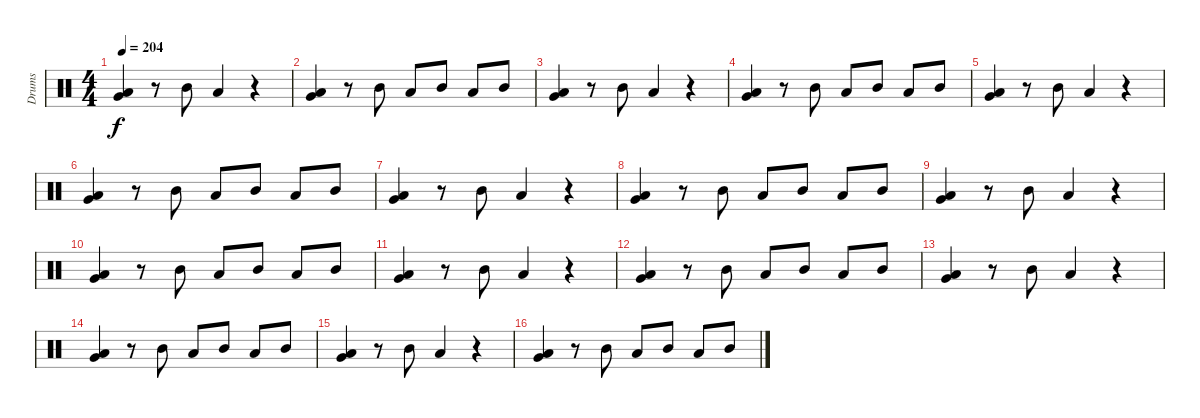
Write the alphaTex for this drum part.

\track ("Drums" "Drums") {instrument percussion}
\staff {score}
\articulation defaults
\ts (4 4)
\tempo 204
\clef neutral
\ks c
("Low Tom (hit)" "Very Low Tom (hit)").4{dy f} r.8 "Mid Tom (hit)".8 "Low Tom (hit)".4 r.4 |
("Very Low Tom (hit)" "Low Tom (hit)").4 r.8 "Mid Tom (hit)".8 "Low Tom (hit)".8 "Mid Tom (hit)".8 "Low Tom (hit)".8 "Mid Tom (hit)".8 |
("Low Tom (hit)" "Very Low Tom (hit)").4 r.8 "Mid Tom (hit)".8 "Low Tom (hit)".4 r.4 |
("Low Tom (hit)" "Very Low Tom (hit)").4 r.8 "Mid Tom (hit)".8 "Low Tom (hit)".8 "Mid Tom (hit)".8 "Low Tom (hit)".8 "Mid Tom (hit)".8 |
("Very Low Tom (hit)" "Low Tom (hit)").4 r.8 "Mid Tom (hit)".8 "Low Tom (hit)".4 r.4 |
("Low Tom (hit)" "Very Low Tom (hit)").4 r.8 "Mid Tom (hit)".8 "Low Tom (hit)".8 "Mid Tom (hit)".8 "Low Tom (hit)".8 "Mid Tom (hit)".8 |
("Low Tom (hit)" "Very Low Tom (hit)").4 r.8 "Mid Tom (hit)".8 "Low Tom (hit)".4 r.4 |
("Low Tom (hit)" "Very Low Tom (hit)").4 r.8 "Mid Tom (hit)".8 "Low Tom (hit)".8 "Mid Tom (hit)".8 "Low Tom (hit)".8 "Mid Tom (hit)".8 |
("Low Tom (hit)" "Very Low Tom (hit)").4 r.8 "Mid Tom (hit)".8 "Low Tom (hit)".4 r.4 |
("Very Low Tom (hit)" "Low Tom (hit)").4 r.8 "Mid Tom (hit)".8 "Low Tom (hit)".8 "Mid Tom (hit)".8 "Low Tom (hit)".8 "Mid Tom (hit)".8 |
("Low Tom (hit)" "Very Low Tom (hit)").4 r.8 "Mid Tom (hit)".8 "Low Tom (hit)".4 r.4 |
("Low Tom (hit)" "Very Low Tom (hit)").4 r.8 "Mid Tom (hit)".8 "Low Tom (hit)".8 "Mid Tom (hit)".8 "Low Tom (hit)".8 "Mid Tom (hit)".8 |
("Very Low Tom (hit)" "Low Tom (hit)").4 r.8 "Mid Tom (hit)".8 "Low Tom (hit)".4 r.4 |
("Low Tom (hit)" "Very Low Tom (hit)").4 r.8 "Mid Tom (hit)".8 "Low Tom (hit)".8 "Mid Tom (hit)".8 "Low Tom (hit)".8 "Mid Tom (hit)".8 |
("Low Tom (hit)" "Very Low Tom (hit)").4 r.8 "Mid Tom (hit)".8 "Low Tom (hit)".4 r.4 |
("Very Low Tom (hit)" "Low Tom (hit)").4 r.8 "Mid Tom (hit)".8 "Low Tom (hit)".8 "Mid Tom (hit)".8 "Low Tom (hit)".8 "Mid Tom (hit)".8
